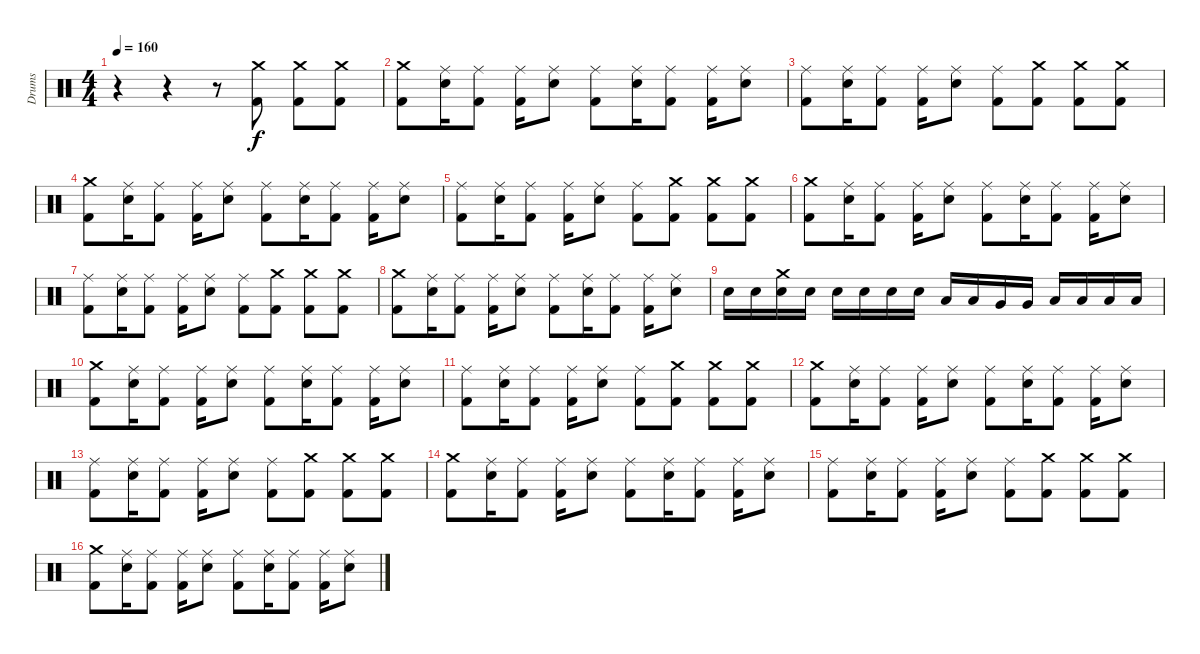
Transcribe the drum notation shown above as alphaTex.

\track ("Drums" "Drums") {instrument percussion}
\staff {score}
\articulation defaults
\ts (4 4)
\tempo 160
\clef neutral
\ks c
r.4{dy f} r.4 r.8 ("Crash medium (hit)" "Kick (hit) 2").8 ("Crash medium (hit)" "Kick (hit) 2").8 ("Crash medium (hit)" "Kick (hit) 2").8 |
("Crash medium (hit)" "Kick (hit) 2").8 ("Snare (hit) 2" "Ride (middle)").16 ("Ride (middle)" "Kick (hit) 2").8 ("Ride (middle)" "Kick (hit) 2").16 ("Snare (hit) 2" "Ride (middle)").8 ("Ride (middle)" "Kick (hit) 2").8 ("Snare (hit) 2" "Ride (middle)").16 ("Ride (middle)" "Kick (hit) 2").8 ("Ride (middle)" "Kick (hit) 2").16 ("Snare (hit) 2" "Ride (middle)").8 |
("Ride (middle)" "Kick (hit) 2").8 ("Snare (hit) 2" "Ride (middle)").16 ("Ride (middle)" "Kick (hit) 2").8 ("Ride (middle)" "Kick (hit) 2").16 ("Snare (hit) 2" "Ride (middle)").8 ("Ride (middle)" "Kick (hit) 2").8 ("Crash medium (hit)" "Kick (hit) 2").8 ("Crash medium (hit)" "Kick (hit) 2").8 ("Crash medium (hit)" "Kick (hit) 2").8 |
("Crash medium (hit)" "Kick (hit) 2").8 ("Snare (hit) 2" "Ride (middle)").16 ("Ride (middle)" "Kick (hit) 2").8 ("Ride (middle)" "Kick (hit) 2").16 ("Snare (hit) 2" "Ride (middle)").8 ("Ride (middle)" "Kick (hit) 2").8 ("Snare (hit) 2" "Ride (middle)").16 ("Ride (middle)" "Kick (hit) 2").8 ("Ride (middle)" "Kick (hit) 2").16 ("Snare (hit) 2" "Ride (middle)").8 |
("Ride (middle)" "Kick (hit) 2").8 ("Snare (hit) 2" "Ride (middle)").16 ("Ride (middle)" "Kick (hit) 2").8 ("Ride (middle)" "Kick (hit) 2").16 ("Snare (hit) 2" "Ride (middle)").8 ("Ride (middle)" "Kick (hit) 2").8 ("Crash medium (hit)" "Kick (hit) 2").8 ("Crash medium (hit)" "Kick (hit) 2").8 ("Crash medium (hit)" "Kick (hit) 2").8 |
("Crash medium (hit)" "Kick (hit) 2").8 ("Snare (hit) 2" "Ride (middle)").16 ("Ride (middle)" "Kick (hit) 2").8 ("Ride (middle)" "Kick (hit) 2").16 ("Snare (hit) 2" "Ride (middle)").8 ("Ride (middle)" "Kick (hit) 2").8 ("Snare (hit) 2" "Ride (middle)").16 ("Ride (middle)" "Kick (hit) 2").8 ("Ride (middle)" "Kick (hit) 2").16 ("Snare (hit) 2" "Ride (middle)").8 |
("Ride (middle)" "Kick (hit) 2").8 ("Snare (hit) 2" "Ride (middle)").16 ("Ride (middle)" "Kick (hit) 2").8 ("Ride (middle)" "Kick (hit) 2").16 ("Snare (hit) 2" "Ride (middle)").8 ("Ride (middle)" "Kick (hit) 2").8 ("Crash medium (hit)" "Kick (hit) 2").8 ("Crash medium (hit)" "Kick (hit) 2").8 ("Crash medium (hit)" "Kick (hit) 2").8 |
("Crash medium (hit)" "Kick (hit) 2").8 ("Snare (hit) 2" "Ride (middle)").16 ("Ride (middle)" "Kick (hit) 2").8 ("Ride (middle)" "Kick (hit) 2").16 ("Snare (hit) 2" "Ride (middle)").8 ("Ride (middle)" "Kick (hit) 2").8 ("Snare (hit) 2" "Ride (middle)").16 ("Ride (middle)" "Kick (hit) 2").8 ("Ride (middle)" "Kick (hit) 2").16 ("Snare (hit) 2" "Ride (middle)").8 |
"Snare (hit) 2".16 "Snare (hit) 2".16 ("Snare (hit) 2" "Crash medium (hit)").16 "Snare (hit) 2".16 "Snare (hit) 2".16 "Snare (hit) 2".16 "Snare (hit) 2".16 "Snare (hit) 2".16 "Low Tom (hit)".16 "Low Tom (hit)".16 "Very Low Tom (hit)".16 "Very Low Tom (hit)".16 "Low Tom (hit)".16 "Low Floor Tom (hit)".16 "Low Floor Tom (hit)".16 "Low Floor Tom (hit)".16 |
("Crash medium (hit)" "Kick (hit) 2").8 ("Snare (hit) 2" "Ride (middle)").16 ("Ride (middle)" "Kick (hit) 2").8 ("Ride (middle)" "Kick (hit) 2").16 ("Snare (hit) 2" "Ride (middle)").8 ("Ride (middle)" "Kick (hit) 2").8 ("Snare (hit) 2" "Ride (middle)").16 ("Ride (middle)" "Kick (hit) 2").8 ("Ride (middle)" "Kick (hit) 2").16 ("Snare (hit) 2" "Ride (middle)").8 |
("Ride (middle)" "Kick (hit) 2").8 ("Snare (hit) 2" "Ride (middle)").16 ("Ride (middle)" "Kick (hit) 2").8 ("Ride (middle)" "Kick (hit) 2").16 ("Snare (hit) 2" "Ride (middle)").8 ("Ride (middle)" "Kick (hit) 2").8 ("Crash medium (hit)" "Kick (hit) 2").8 ("Crash medium (hit)" "Kick (hit) 2").8 ("Crash medium (hit)" "Kick (hit) 2").8 |
("Crash medium (hit)" "Kick (hit) 2").8 ("Snare (hit) 2" "Ride (middle)").16 ("Ride (middle)" "Kick (hit) 2").8 ("Ride (middle)" "Kick (hit) 2").16 ("Snare (hit) 2" "Ride (middle)").8 ("Ride (middle)" "Kick (hit) 2").8 ("Snare (hit) 2" "Ride (middle)").16 ("Ride (middle)" "Kick (hit) 2").8 ("Ride (middle)" "Kick (hit) 2").16 ("Snare (hit) 2" "Ride (middle)").8 |
("Ride (middle)" "Kick (hit) 2").8 ("Snare (hit) 2" "Ride (middle)").16 ("Ride (middle)" "Kick (hit) 2").8 ("Ride (middle)" "Kick (hit) 2").16 ("Snare (hit) 2" "Ride (middle)").8 ("Ride (middle)" "Kick (hit) 2").8 ("Crash medium (hit)" "Kick (hit) 2").8 ("Crash medium (hit)" "Kick (hit) 2").8 ("Crash medium (hit)" "Kick (hit) 2").8 |
("Crash medium (hit)" "Kick (hit) 2").8 ("Snare (hit) 2" "Ride (middle)").16 ("Ride (middle)" "Kick (hit) 2").8 ("Ride (middle)" "Kick (hit) 2").16 ("Snare (hit) 2" "Ride (middle)").8 ("Ride (middle)" "Kick (hit) 2").8 ("Snare (hit) 2" "Ride (middle)").16 ("Ride (middle)" "Kick (hit) 2").8 ("Ride (middle)" "Kick (hit) 2").16 ("Snare (hit) 2" "Ride (middle)").8 |
("Ride (middle)" "Kick (hit) 2").8 ("Snare (hit) 2" "Ride (middle)").16 ("Ride (middle)" "Kick (hit) 2").8 ("Ride (middle)" "Kick (hit) 2").16 ("Snare (hit) 2" "Ride (middle)").8 ("Ride (middle)" "Kick (hit) 2").8 ("Crash medium (hit)" "Kick (hit) 2").8 ("Crash medium (hit)" "Kick (hit) 2").8 ("Crash medium (hit)" "Kick (hit) 2").8 |
("Crash medium (hit)" "Kick (hit) 2").8 ("Snare (hit) 2" "Ride (middle)").16 ("Ride (middle)" "Kick (hit) 2").8 ("Ride (middle)" "Kick (hit) 2").16 ("Snare (hit) 2" "Ride (middle)").8 ("Ride (middle)" "Kick (hit) 2").8 ("Snare (hit) 2" "Ride (middle)").16 ("Ride (middle)" "Kick (hit) 2").8 ("Ride (middle)" "Kick (hit) 2").16 ("Snare (hit) 2" "Ride (middle)").8
